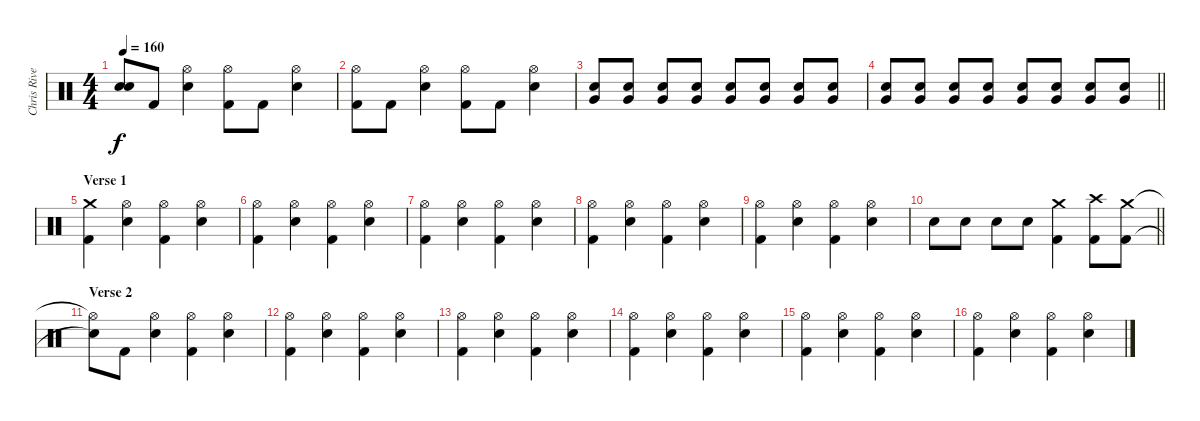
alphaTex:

\track ("Chris Rivers" "Chris Rive") {instrument percussion}
\staff {score}
\articulation defaults
\ts (4 4)
\tempo 160
\clef neutral
\ks c
("Snare (hit)"{t} "Snare (hit)"{t}).8{dy f} "Kick (hit) 2".8 ("Hi-Hat (open)" "Electric Snare (hit)").4 ("Hi-Hat (open)" "Kick (hit) 2").8 "Kick (hit) 2".8 ("Hi-Hat (open)" "Electric Snare (hit)").4 |
("Hi-Hat (open)" "Kick (hit) 2").8 "Kick (hit) 2".8 ("Hi-Hat (open)" "Electric Snare (hit)").4 ("Hi-Hat (open)" "Kick (hit) 2").8 "Kick (hit) 2".8 ("Hi-Hat (open)" "Electric Snare (hit)").4 |
("Very Low Tom (hit)" "Snare (hit) 2").8 ("Very Low Tom (hit)" "Snare (hit) 2").8 ("Very Low Tom (hit)" "Snare (hit) 2").8 ("Very Low Tom (hit)" "Snare (hit) 2").8 ("Very Low Tom (hit)" "Snare (hit) 2").8 ("Very Low Tom (hit)" "Snare (hit) 2").8 ("Very Low Tom (hit)" "Snare (hit) 2").8 ("Very Low Tom (hit)" "Snare (hit) 2").8 |
\barLineRight lightlight
("Very Low Tom (hit)" "Snare (hit) 2").8 ("Very Low Tom (hit)" "Snare (hit) 2").8 ("Very Low Tom (hit)" "Snare (hit) 2").8 ("Very Low Tom (hit)" "Snare (hit) 2").8 ("Very Low Tom (hit)" "Snare (hit) 2").8 ("Very Low Tom (hit)" "Snare (hit) 2").8 ("Very Low Tom (hit)" "Snare (hit) 2").8 ("Very Low Tom (hit)" "Snare (hit) 2").8 |
\section ("" "Verse 1")
("Crash medium (hit)" "Kick (hit) 2").4 ("Hi-Hat (open)" "Electric Snare (hit)").4 ("Hi-Hat (open)" "Kick (hit) 2").4 ("Hi-Hat (open)" "Electric Snare (hit)").4 |
("Hi-Hat (open)" "Kick (hit) 2").4 ("Hi-Hat (open)" "Electric Snare (hit)").4 ("Hi-Hat (open)" "Kick (hit) 2").4 ("Hi-Hat (open)" "Electric Snare (hit)").4 |
("Hi-Hat (open)" "Kick (hit) 2").4 ("Hi-Hat (open)" "Electric Snare (hit)").4 ("Hi-Hat (open)" "Kick (hit) 2").4 ("Hi-Hat (open)" "Electric Snare (hit)").4 |
("Hi-Hat (open)" "Kick (hit) 2").4 ("Hi-Hat (open)" "Electric Snare (hit)").4 ("Hi-Hat (open)" "Kick (hit) 2").4 ("Hi-Hat (open)" "Electric Snare (hit)").4 |
("Hi-Hat (open)" "Kick (hit) 2").4 ("Hi-Hat (open)" "Electric Snare (hit)").4 ("Hi-Hat (open)" "Kick (hit) 2").4 ("Hi-Hat (open)" "Electric Snare (hit)").4 |
\barLineRight lightlight "Electric Snare (hit)".8 "Electric Snare (hit)".8 "Electric Snare (hit)".8 "Electric Snare (hit)".8
("Crash medium (hit)" "Kick (hit) 2").4 ("Crash high (hit)" "Kick (hit) 2").8 ("Crash medium (hit)" "Kick (hit) 2").8 |
\section ("" "Verse 2")
("Hi-Hat (open)"{t} "Snare (hit)"{t}).8 "Kick (hit) 2".8 ("Hi-Hat (open)" "Electric Snare (hit)").4 ("Hi-Hat (open)" "Kick (hit) 2").4 ("Hi-Hat (open)" "Electric Snare (hit)").4 |
("Hi-Hat (open)" "Kick (hit) 2").4 ("Hi-Hat (open)" "Electric Snare (hit)").4 ("Hi-Hat (open)" "Kick (hit) 2").4 ("Hi-Hat (open)" "Electric Snare (hit)").4 |
("Hi-Hat (open)" "Kick (hit) 2").4 ("Hi-Hat (open)" "Electric Snare (hit)").4 ("Hi-Hat (open)" "Kick (hit) 2").4 ("Hi-Hat (open)" "Electric Snare (hit)").4 |
("Hi-Hat (open)" "Kick (hit) 2").4 ("Hi-Hat (open)" "Electric Snare (hit)").4 ("Hi-Hat (open)" "Kick (hit) 2").4 ("Hi-Hat (open)" "Electric Snare (hit)").4 |
("Hi-Hat (open)" "Kick (hit) 2").4 ("Hi-Hat (open)" "Electric Snare (hit)").4 ("Hi-Hat (open)" "Kick (hit) 2").4 ("Hi-Hat (open)" "Electric Snare (hit)").4 |
("Hi-Hat (open)" "Kick (hit) 2").4 ("Hi-Hat (open)" "Electric Snare (hit)").4 ("Hi-Hat (open)" "Kick (hit) 2").4 ("Hi-Hat (open)" "Electric Snare (hit)").4
